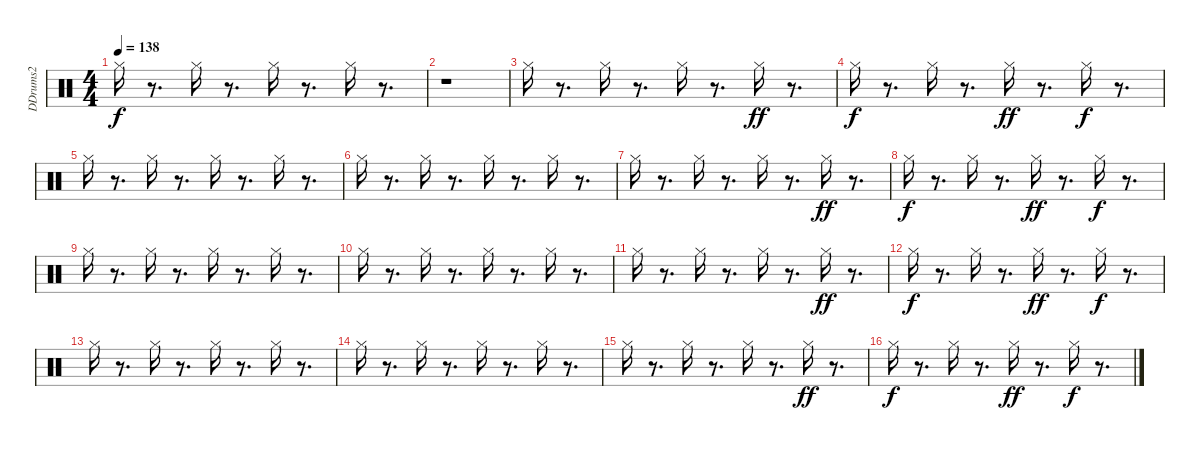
\track ("DDrums2" "DDrums2") {instrument percussion}
\staff {score}
\articulation defaults
\ts (4 4)
\tempo 138
\clef neutral
\ks c "Hi-Hat (closed)".16{dy f}
r.8{d} "Hi-Hat (closed)".16 r.8{d} "Hi-Hat (closed)".16 r.8{d} "Hi-Hat (closed)".16 r.8{d} |
r.1 |
"Hi-Hat (closed)".16 r.8{d} "Hi-Hat (closed)".16 r.8{d} "Hi-Hat (closed)".16 r.8{d} "Hi-Hat (closed)".16{dy ff} r.8{d} |
"Hi-Hat (closed)".16{dy f} r.8{d} "Hi-Hat (closed)".16 r.8{d} "Hi-Hat (closed)".16{dy ff} r.8{d} "Hi-Hat (closed)".16{dy f} r.8{d} |
"Hi-Hat (closed)".16 r.8{d} "Hi-Hat (closed)".16 r.8{d} "Hi-Hat (closed)".16 r.8{d} "Hi-Hat (closed)".16 r.8{d} |
"Hi-Hat (closed)".16 r.8{d} "Hi-Hat (closed)".16 r.8{d} "Hi-Hat (closed)".16 r.8{d} "Hi-Hat (closed)".16 r.8{d} |
"Hi-Hat (closed)".16 r.8{d} "Hi-Hat (closed)".16 r.8{d} "Hi-Hat (closed)".16 r.8{d} "Hi-Hat (closed)".16{dy ff} r.8{d} |
"Hi-Hat (closed)".16{dy f} r.8{d} "Hi-Hat (closed)".16 r.8{d} "Hi-Hat (closed)".16{dy ff} r.8{d} "Hi-Hat (closed)".16{dy f} r.8{d} |
"Hi-Hat (closed)".16 r.8{d} "Hi-Hat (closed)".16 r.8{d} "Hi-Hat (closed)".16 r.8{d} "Hi-Hat (closed)".16 r.8{d} |
"Hi-Hat (closed)".16 r.8{d} "Hi-Hat (closed)".16 r.8{d} "Hi-Hat (closed)".16 r.8{d} "Hi-Hat (closed)".16 r.8{d} |
"Hi-Hat (closed)".16 r.8{d} "Hi-Hat (closed)".16 r.8{d} "Hi-Hat (closed)".16 r.8{d} "Hi-Hat (closed)".16{dy ff} r.8{d} |
"Hi-Hat (closed)".16{dy f} r.8{d} "Hi-Hat (closed)".16 r.8{d} "Hi-Hat (closed)".16{dy ff} r.8{d} "Hi-Hat (closed)".16{dy f} r.8{d} |
"Hi-Hat (closed)".16 r.8{d} "Hi-Hat (closed)".16 r.8{d} "Hi-Hat (closed)".16 r.8{d} "Hi-Hat (closed)".16 r.8{d} |
"Hi-Hat (closed)".16 r.8{d} "Hi-Hat (closed)".16 r.8{d} "Hi-Hat (closed)".16 r.8{d} "Hi-Hat (closed)".16 r.8{d} |
"Hi-Hat (closed)".16 r.8{d} "Hi-Hat (closed)".16 r.8{d} "Hi-Hat (closed)".16 r.8{d} "Hi-Hat (closed)".16{dy ff} r.8{d} |
"Hi-Hat (closed)".16{dy f} r.8{d} "Hi-Hat (closed)".16 r.8{d} "Hi-Hat (closed)".16{dy ff} r.8{d} "Hi-Hat (closed)".16{dy f} r.8{d}
